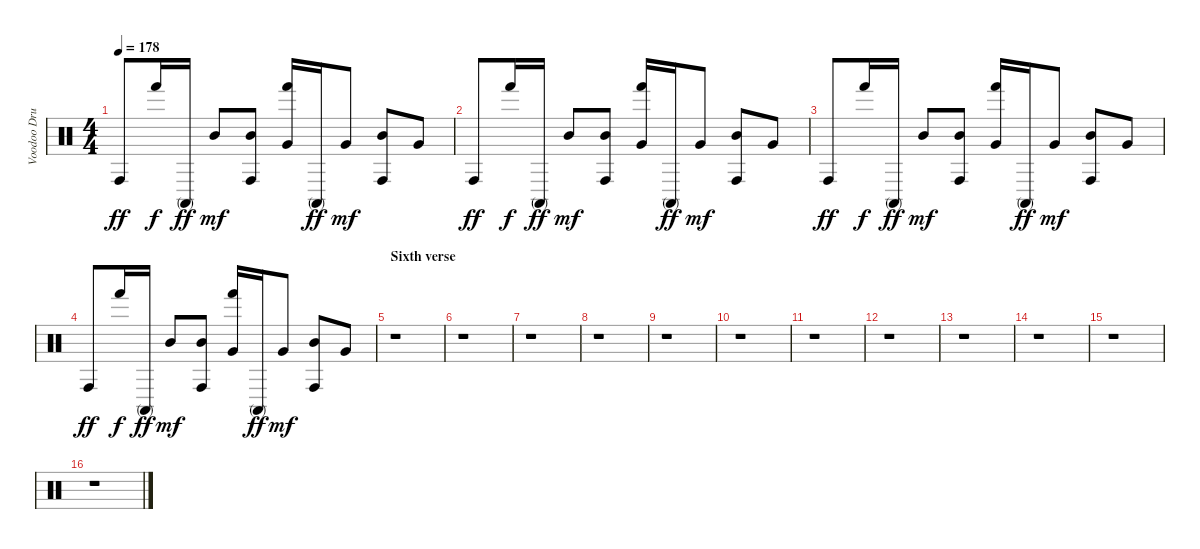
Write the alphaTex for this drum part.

\track ("Voodoo Drums" "Voodoo Dru") {instrument percussion}
\staff {score}
\articulation defaults
\ts (4 4)
\tempo 178
\clef neutral
\ks c "Conga high (hit)".8{dy ff} "Hand (hit)".16{dy f} "Conga high (mute)".16{dy ff} "Mid Tom (hit)".8{dy mf}
("Conga high (hit)" "Mid Tom (hit)").8 ("Hand (hit)" "Very Low Tom (hit)").16 "Conga high (mute)".16{dy ff} "Very Low Tom (hit)".8{dy mf} ("Conga high (hit)" "Mid Tom (hit)").8 "Very Low Tom (hit)".8 |
"Conga high (hit)".8{dy ff} "Hand (hit)".16{dy f} "Conga high (mute)".16{dy ff} "Mid Tom (hit)".8{dy mf} ("Conga high (hit)" "Mid Tom (hit)").8 ("Hand (hit)" "Very Low Tom (hit)").16 "Conga high (mute)".16{dy ff} "Very Low Tom (hit)".8{dy mf} ("Conga high (hit)" "Mid Tom (hit)").8 "Very Low Tom (hit)".8 |
"Conga high (hit)".8{dy ff} "Hand (hit)".16{dy f} "Conga high (mute)".16{dy ff} "Mid Tom (hit)".8{dy mf} ("Conga high (hit)" "Mid Tom (hit)").8 ("Hand (hit)" "Very Low Tom (hit)").16 "Conga high (mute)".16{dy ff} "Very Low Tom (hit)".8{dy mf} ("Conga high (hit)" "Mid Tom (hit)").8 "Very Low Tom (hit)".8 |
"Conga high (hit)".8{dy ff} "Hand (hit)".16{dy f} "Conga high (mute)".16{dy ff} "Mid Tom (hit)".8{dy mf} ("Conga high (hit)" "Mid Tom (hit)").8 ("Hand (hit)" "Very Low Tom (hit)").16 "Conga high (mute)".16{dy ff} "Very Low Tom (hit)".8{dy mf} ("Conga high (hit)" "Mid Tom (hit)").8 "Very Low Tom (hit)".8 |
\section ("" "Sixth verse")
r.1 |
r.1 |
r.1 |
r.1 |
r.1 |
r.1 |
r.1 |
r.1 |
r.1 |
r.1 |
r.1 |
r.1
